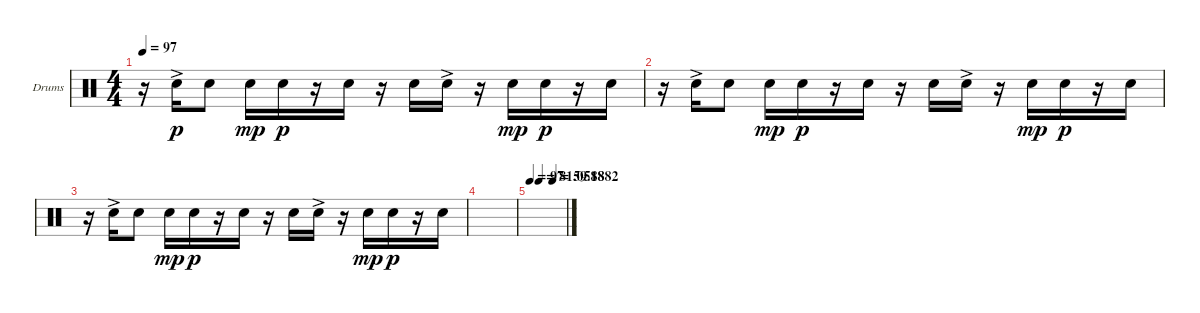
\bracketExtendMode groupsimilarinstruments
\firstSystemTrackNameOrientation horizontal
\otherSystemsTrackNameOrientation horizontal
\track ("Snare" "Drums") {instrument percussion}
\staff {score}
\articulation defaults
\ts (4 4)
\tempo 97
\clef neutral
\ks c
r.16{dy p} "Snare (hit) 2"{ac}.16 "Snare (hit) 2".8 "Snare (hit) 2".16{dy mp} "Snare (hit) 2".16{dy p} r.16 "Snare (hit) 2".16 r.16 "Snare (hit) 2".16 "Snare (hit) 2"{ac}.16 r.16 "Snare (hit) 2".16{dy mp} "Snare (hit) 2".16{dy p} r.16 "Snare (hit) 2".16 |
r.16 "Snare (hit) 2"{ac}.16 "Snare (hit) 2".8 "Snare (hit) 2".16{dy mp} "Snare (hit) 2".16{dy p} r.16 "Snare (hit) 2".16 r.16 "Snare (hit) 2".16 "Snare (hit) 2"{ac}.16 r.16 "Snare (hit) 2".16{dy mp} "Snare (hit) 2".16{dy p} r.16 "Snare (hit) 2".16 |
r.16 "Snare (hit) 2"{ac}.16 "Snare (hit) 2".8 "Snare (hit) 2".16{dy mp} "Snare (hit) 2".16{dy p} r.16 "Snare (hit) 2".16 r.16 "Snare (hit) 2".16 "Snare (hit) 2"{ac}.16 r.16 "Snare (hit) 2".16{dy mp} "Snare (hit) 2".16{dy p} r.16 "Snare (hit) 2".16 |
|
\tempo 97
\tempo (81.0588 0.25)
\tempo (59.1882 0.6375)
